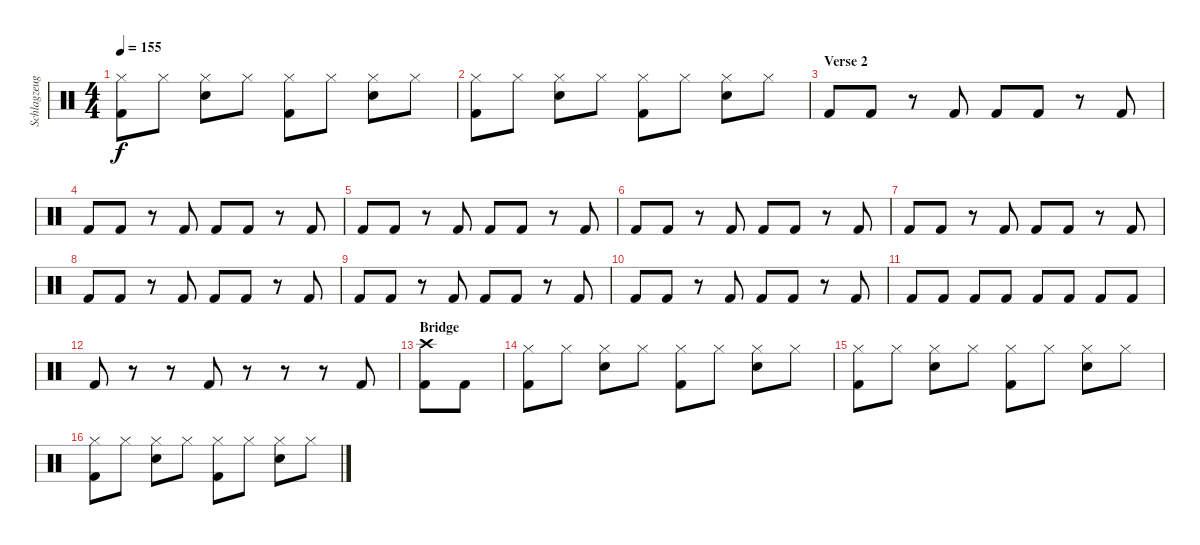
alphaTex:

\track ("Schlagzeug - Bela B." "Schlagzeug") {instrument percussion}
\staff {score}
\articulation defaults
\ts (4 4)
\tempo 155
\clef neutral
\ks c
("Hi-Hat (closed)" "Kick (hit) 2").8{dy f} "Hi-Hat (closed)".8 ("Hi-Hat (closed)" "Snare (hit) 2").8 "Hi-Hat (closed)".8 ("Hi-Hat (closed)" "Kick (hit) 2").8 "Hi-Hat (closed)".8 ("Hi-Hat (closed)" "Snare (hit) 2").8 "Hi-Hat (closed)".8 |
("Hi-Hat (closed)" "Kick (hit) 2").8 "Hi-Hat (closed)".8 ("Hi-Hat (closed)" "Snare (hit) 2").8 "Hi-Hat (closed)".8 ("Hi-Hat (closed)" "Kick (hit) 2").8 "Hi-Hat (closed)".8 ("Hi-Hat (closed)" "Snare (hit) 2").8 "Hi-Hat (closed)".8 |
\section ("" "Verse 2")
"Kick (hit) 2".8 "Kick (hit) 2".8 r.8 "Kick (hit) 2".8 "Kick (hit) 2".8 "Kick (hit) 2".8 r.8 "Kick (hit) 2".8 |
"Kick (hit) 2".8 "Kick (hit) 2".8 r.8 "Kick (hit) 2".8 "Kick (hit) 2".8 "Kick (hit) 2".8 r.8 "Kick (hit) 2".8 |
"Kick (hit) 2".8 "Kick (hit) 2".8 r.8 "Kick (hit) 2".8 "Kick (hit) 2".8 "Kick (hit) 2".8 r.8 "Kick (hit) 2".8 |
"Kick (hit) 2".8 "Kick (hit) 2".8 r.8 "Kick (hit) 2".8 "Kick (hit) 2".8 "Kick (hit) 2".8 r.8 "Kick (hit) 2".8 |
"Kick (hit) 2".8 "Kick (hit) 2".8 r.8 "Kick (hit) 2".8 "Kick (hit) 2".8 "Kick (hit) 2".8 r.8 "Kick (hit) 2".8 |
"Kick (hit) 2".8 "Kick (hit) 2".8 r.8 "Kick (hit) 2".8 "Kick (hit) 2".8 "Kick (hit) 2".8 r.8 "Kick (hit) 2".8 |
"Kick (hit) 2".8 "Kick (hit) 2".8 r.8 "Kick (hit) 2".8 "Kick (hit) 2".8 "Kick (hit) 2".8 r.8 "Kick (hit) 2".8 |
"Kick (hit) 2".8 "Kick (hit) 2".8 r.8 "Kick (hit) 2".8 "Kick (hit) 2".8 "Kick (hit) 2".8 r.8 "Kick (hit) 2".8 |
"Kick (hit) 2".8 "Kick (hit) 2".8 "Kick (hit) 2".8 "Kick (hit) 2".8 "Kick (hit) 2".8 "Kick (hit) 2".8 "Kick (hit) 2".8 "Kick (hit) 2".8 |
"Kick (hit) 2".8 r.8 r.8 "Kick (hit) 2".8 r.8 r.8 r.8 "Kick (hit) 2".8 |
\section ("" "Bridge")
("Crash high (hit)" "Kick (hit) 2").8 "Kick (hit) 2".8 |
("Hi-Hat (closed)" "Kick (hit) 2").8 "Hi-Hat (closed)".8 ("Hi-Hat (closed)" "Snare (hit) 2").8 "Hi-Hat (closed)".8 ("Hi-Hat (closed)" "Kick (hit) 2").8 "Hi-Hat (closed)".8 ("Hi-Hat (closed)" "Snare (hit) 2").8 "Hi-Hat (closed)".8 |
("Hi-Hat (closed)" "Kick (hit) 2").8 "Hi-Hat (closed)".8 ("Hi-Hat (closed)" "Snare (hit) 2").8 "Hi-Hat (closed)".8 ("Hi-Hat (closed)" "Kick (hit) 2").8 "Hi-Hat (closed)".8 ("Hi-Hat (closed)" "Snare (hit) 2").8 "Hi-Hat (closed)".8 |
("Hi-Hat (closed)" "Kick (hit) 2").8 "Hi-Hat (closed)".8 ("Hi-Hat (closed)" "Snare (hit) 2").8 "Hi-Hat (closed)".8 ("Hi-Hat (closed)" "Kick (hit) 2").8 "Hi-Hat (closed)".8 ("Hi-Hat (closed)" "Snare (hit) 2").8 "Hi-Hat (closed)".8
